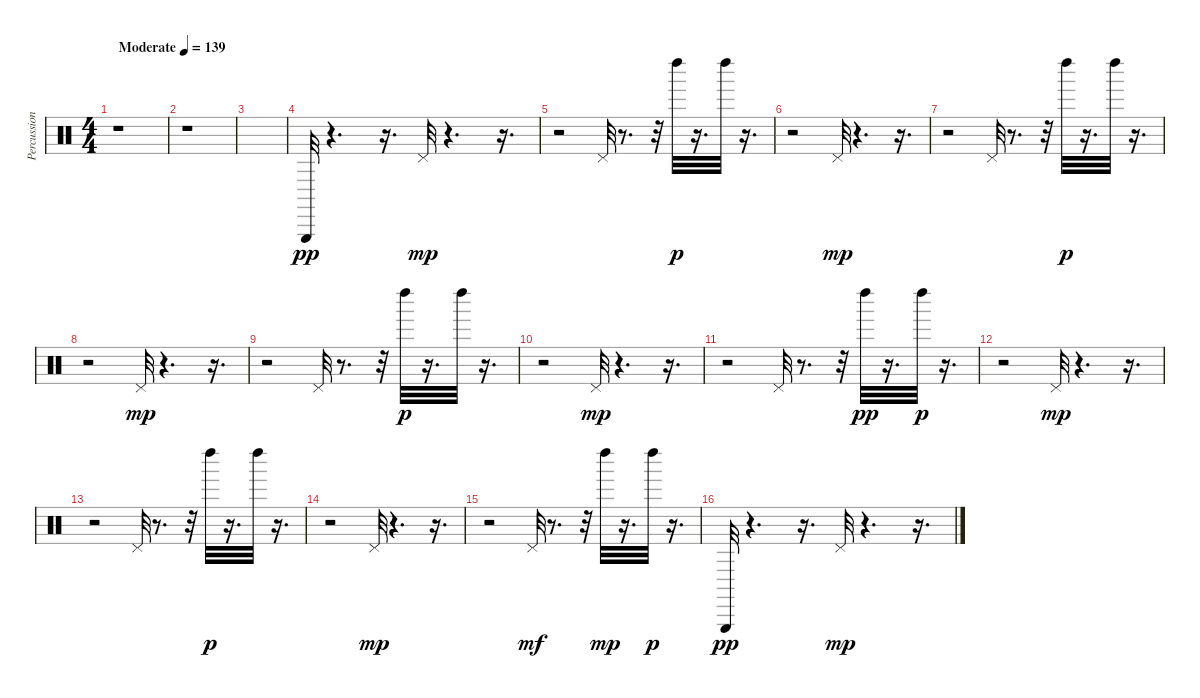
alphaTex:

\track ("Percussion" "Percussion") {instrument percussion}
\staff {score}
\articulation defaults
\ts (4 4)
\tempo (139 "Moderate")
\clef neutral
\ks c
r.1{dy pp} |
r.1 |
|
"Triangle (hit)".32 r.4{d} r.16{d} "Pedal Hi-Hat (hit)".32{dy mp} r.4{d} r.16{d} |
r.2 "Pedal Hi-Hat (hit)".32 r.8{d} r.32 "Left Maraca (hit)".32{dy p} r.16{d} "Left Maraca (hit)".32 r.16{d} |
r.2 "Pedal Hi-Hat (hit)".32{dy mp} r.4{d} r.16{d} |
r.2 "Pedal Hi-Hat (hit)".32 r.8{d} r.32 "Left Maraca (hit)".32{dy p} r.16{d} "Left Maraca (hit)".32 r.16{d} |
r.2 "Pedal Hi-Hat (hit)".32{dy mp} r.4{d} r.16{d} |
r.2 "Pedal Hi-Hat (hit)".32 r.8{d} r.32 "Left Maraca (hit)".32{dy p} r.16{d} "Left Maraca (hit)".32 r.16{d} |
r.2 "Pedal Hi-Hat (hit)".32{dy mp} r.4{d} r.16{d} |
r.2 "Pedal Hi-Hat (hit)".32 r.8{d} r.32 "Left Maraca (hit)".32{dy pp} r.16{d} "Left Maraca (hit)".32{dy p} r.16{d} |
r.2 "Pedal Hi-Hat (hit)".32{dy mp} r.4{d} r.16{d} |
r.2 "Pedal Hi-Hat (hit)".32 r.8{d} r.32 "Left Maraca (hit)".32{dy p} r.16{d} "Left Maraca (hit)".32 r.16{d} |
r.2 "Pedal Hi-Hat (hit)".32{dy mp} r.4{d} r.16{d} |
r.2 "Pedal Hi-Hat (hit)".32{dy mf} r.8{d} r.32 "Left Maraca (hit)".32{dy mp} r.16{d} "Left Maraca (hit)".32{dy p} r.16{d} |
"Triangle (hit)".32{dy pp} r.4{d} r.16{d} "Pedal Hi-Hat (hit)".32{dy mp} r.4{d} r.16{d}
